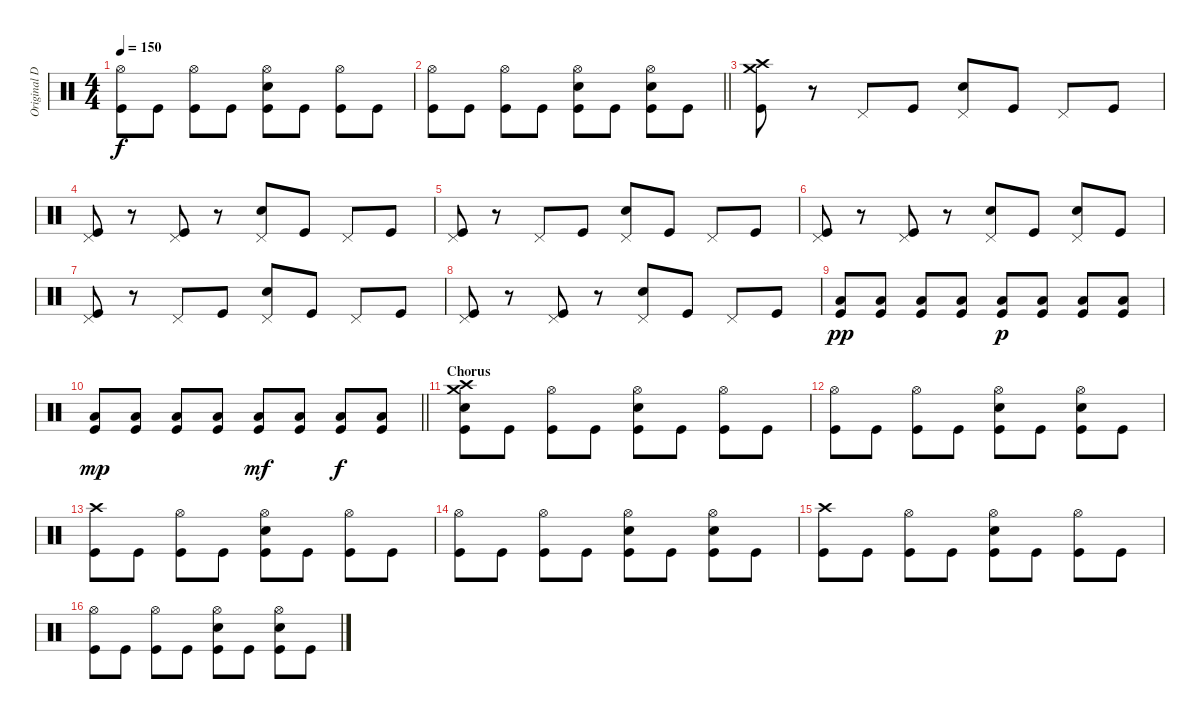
\track ("Original Drums" "Original D") {instrument percussion}
\staff {score}
\articulation defaults
\ts (4 4)
\tempo 150
\clef neutral
\ks c
("Hi-Hat (open)" "Kick (hit)").8{dy f} "Kick (hit)".8 ("Hi-Hat (open)" "Kick (hit)").8 "Kick (hit)".8 ("Hi-Hat (open)" "Snare (hit) 2" "Kick (hit)").8 "Kick (hit)".8 ("Hi-Hat (open)" "Kick (hit)").8 "Kick (hit)".8 |
\barLineRight lightlight
("Hi-Hat (open)" "Kick (hit)").8 "Kick (hit)".8 ("Hi-Hat (open)" "Kick (hit)").8 "Kick (hit)".8 ("Hi-Hat (open)" "Snare (hit) 2" "Kick (hit)").8 "Kick (hit)".8 ("Hi-Hat (open)" "Snare (hit) 2" "Kick (hit)").8 "Kick (hit)".8 |
("Crash high (hit)" "Crash medium (hit)" "Kick (hit)").8 r.8 "Pedal Hi-Hat (hit)".8 "Kick (hit)".8 ("Pedal Hi-Hat (hit)" "Snare (hit) 2").8 "Kick (hit)".8 "Pedal Hi-Hat (hit)".8 "Kick (hit)".8 |
("Pedal Hi-Hat (hit)" "Kick (hit)").8 r.8 ("Pedal Hi-Hat (hit)" "Kick (hit)").8 r.8 ("Pedal Hi-Hat (hit)" "Snare (hit) 2").8 "Kick (hit)".8 "Pedal Hi-Hat (hit)".8 "Kick (hit)".8 |
("Pedal Hi-Hat (hit)" "Kick (hit)").8 r.8 "Pedal Hi-Hat (hit)".8 "Kick (hit)".8 ("Pedal Hi-Hat (hit)" "Snare (hit) 2").8 "Kick (hit)".8 "Pedal Hi-Hat (hit)".8 "Kick (hit)".8 |
("Pedal Hi-Hat (hit)" "Kick (hit)").8 r.8 ("Pedal Hi-Hat (hit)" "Kick (hit)").8 r.8 ("Pedal Hi-Hat (hit)" "Snare (hit) 2").8 "Kick (hit)".8 ("Pedal Hi-Hat (hit)" "Snare (hit) 2").8 "Kick (hit)".8 |
("Pedal Hi-Hat (hit)" "Kick (hit)").8 r.8 "Pedal Hi-Hat (hit)".8 "Kick (hit)".8 ("Pedal Hi-Hat (hit)" "Snare (hit) 2").8 "Kick (hit)".8 "Pedal Hi-Hat (hit)".8 "Kick (hit)".8 |
("Pedal Hi-Hat (hit)" "Kick (hit)").8 r.8 ("Pedal Hi-Hat (hit)" "Kick (hit)").8 r.8 ("Pedal Hi-Hat (hit)" "Snare (hit) 2").8 "Kick (hit)".8 "Pedal Hi-Hat (hit)".8 "Kick (hit)".8 |
("Low Floor Tom (hit)" "Kick (hit)").8{dy pp} ("Low Floor Tom (hit)" "Kick (hit)").8 ("Low Floor Tom (hit)" "Kick (hit)").8 ("Low Floor Tom (hit)" "Kick (hit)").8 ("Low Floor Tom (hit)" "Kick (hit)").8{dy p} ("Low Floor Tom (hit)" "Kick (hit)").8 ("Low Floor Tom (hit)" "Kick (hit)").8 ("Low Floor Tom (hit)" "Kick (hit)").8 |
\barLineRight lightlight
("Low Floor Tom (hit)" "Kick (hit)").8{dy mp} ("Low Floor Tom (hit)" "Kick (hit)").8 ("Low Floor Tom (hit)" "Kick (hit)").8 ("Low Floor Tom (hit)" "Kick (hit)").8 ("Low Floor Tom (hit)" "Kick (hit)").8{dy mf} ("Low Floor Tom (hit)" "Kick (hit)").8 ("Low Floor Tom (hit)" "Kick (hit)").8{dy f} ("Low Floor Tom (hit)" "Kick (hit)").8 |
\section ("" "Chorus")
("Crash high (hit)" "Crash medium (hit)" "Snare (hit) 2" "Kick (hit)").8 "Kick (hit)".8 ("Hi-Hat (open)" "Kick (hit)").8 "Kick (hit)".8 ("Hi-Hat (open)" "Snare (hit) 2" "Kick (hit)").8 "Kick (hit)".8 ("Hi-Hat (open)" "Kick (hit)").8 "Kick (hit)".8 |
("Hi-Hat (open)" "Kick (hit)").8 "Kick (hit)".8 ("Hi-Hat (open)" "Kick (hit)").8 "Kick (hit)".8 ("Hi-Hat (open)" "Snare (hit) 2" "Kick (hit)").8 "Kick (hit)".8 ("Hi-Hat (open)" "Snare (hit) 2" "Kick (hit)").8 "Kick (hit)".8 |
("Crash high (hit)" "Kick (hit)").8 "Kick (hit)".8 ("Hi-Hat (open)" "Kick (hit)").8 "Kick (hit)".8 ("Hi-Hat (open)" "Snare (hit) 2" "Kick (hit)").8 "Kick (hit)".8 ("Hi-Hat (open)" "Kick (hit)").8 "Kick (hit)".8 |
("Hi-Hat (open)" "Kick (hit)").8 "Kick (hit)".8 ("Hi-Hat (open)" "Kick (hit)").8 "Kick (hit)".8 ("Hi-Hat (open)" "Snare (hit) 2" "Kick (hit)").8 "Kick (hit)".8 ("Hi-Hat (open)" "Snare (hit) 2" "Kick (hit)").8 "Kick (hit)".8 |
("Crash high (hit)" "Kick (hit)").8 "Kick (hit)".8 ("Hi-Hat (open)" "Kick (hit)").8 "Kick (hit)".8 ("Hi-Hat (open)" "Snare (hit) 2" "Kick (hit)").8 "Kick (hit)".8 ("Hi-Hat (open)" "Kick (hit)").8 "Kick (hit)".8 |
("Hi-Hat (open)" "Kick (hit)").8 "Kick (hit)".8 ("Hi-Hat (open)" "Kick (hit)").8 "Kick (hit)".8 ("Hi-Hat (open)" "Snare (hit) 2" "Kick (hit)").8 "Kick (hit)".8 ("Hi-Hat (open)" "Snare (hit) 2" "Kick (hit)").8 "Kick (hit)".8
